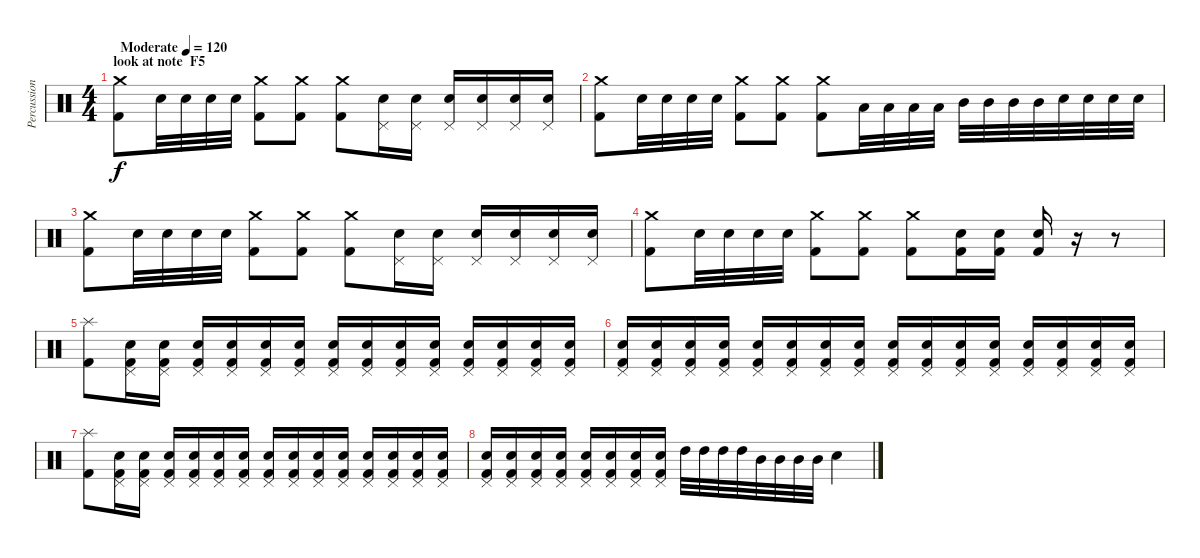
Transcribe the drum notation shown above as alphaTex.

\track ("Percussion" "Percussion") {instrument percussion}
\staff {score}
\articulation defaults
\ts (4 4)
\section ("" "look at note  F5")
\tempo (120 "Moderate")
\clef neutral
\ks c
("Crash medium (hit)" "Kick (hit) 2").8{dy f} "Snare (hit) 2".32 "Snare (hit) 2".32 "Snare (hit) 2".32 "Snare (hit) 2".32 ("Crash medium (hit)" "Kick (hit) 2").8 ("Crash medium (hit)" "Kick (hit) 2").8 ("Crash medium (hit)" "Kick (hit) 2").8 ("Pedal Hi-Hat (hit)" "Snare (hit) 2").16 ("Pedal Hi-Hat (hit)" "Snare (hit) 2").16 ("Pedal Hi-Hat (hit)" "Snare (hit) 2").16 ("Pedal Hi-Hat (hit)" "Snare (hit) 2").16 ("Pedal Hi-Hat (hit)" "Snare (hit) 2").16 ("Pedal Hi-Hat (hit)" "Snare (hit) 2").16 |
("Crash medium (hit)" "Kick (hit) 2").8 "Snare (hit) 2".32 "Snare (hit) 2".32 "Snare (hit) 2".32 "Snare (hit) 2".32 ("Crash medium (hit)" "Kick (hit) 2").8 ("Crash medium (hit)" "Kick (hit) 2").8 ("Crash medium (hit)" "Kick (hit) 2").8 "Low Tom (hit)".32 "Low Tom (hit)".32 "Low Tom (hit)".32 "Low Tom (hit)".32 "Mid Tom (hit)".32 "Mid Tom (hit)".32 "Mid Tom (hit)".32 "Mid Tom (hit)".32 "Snare (hit) 2".32 "Snare (hit) 2".32 "Snare (hit) 2".32 "Snare (hit) 2".32 |
("Crash medium (hit)" "Kick (hit) 2").8 "Snare (hit) 2".32 "Snare (hit) 2".32 "Snare (hit) 2".32 "Snare (hit) 2".32 ("Crash medium (hit)" "Kick (hit) 2").8 ("Crash medium (hit)" "Kick (hit) 2").8 ("Crash medium (hit)" "Kick (hit) 2").8 ("Pedal Hi-Hat (hit)" "Snare (hit) 2").16 ("Pedal Hi-Hat (hit)" "Snare (hit) 2").16 ("Pedal Hi-Hat (hit)" "Snare (hit) 2").16 ("Pedal Hi-Hat (hit)" "Snare (hit) 2").16 ("Pedal Hi-Hat (hit)" "Snare (hit) 2").16 ("Pedal Hi-Hat (hit)" "Snare (hit) 2").16 |
("Crash medium (hit)" "Kick (hit) 2").8 "Snare (hit) 2".32 "Snare (hit) 2".32 "Snare (hit) 2".32 "Snare (hit) 2".32 ("Crash medium (hit)" "Kick (hit) 2").8 ("Crash medium (hit)" "Kick (hit) 2").8 ("Crash medium (hit)" "Kick (hit) 2").8 ("Snare (hit) 2" "Kick (hit) 2").16 ("Snare (hit) 2" "Kick (hit) 2").16 ("Snare (hit) 2" "Kick (hit) 2").16 r.16 r.8 |
("Splash (hit)" "Kick (hit) 2").8 ("Pedal Hi-Hat (hit)" "Snare (hit) 2" "Kick (hit) 2").16 ("Pedal Hi-Hat (hit)" "Snare (hit) 2" "Kick (hit) 2").16 ("Pedal Hi-Hat (hit)" "Snare (hit) 2" "Kick (hit) 2").16 ("Pedal Hi-Hat (hit)" "Snare (hit) 2" "Kick (hit) 2").16 ("Pedal Hi-Hat (hit)" "Snare (hit) 2" "Kick (hit) 2").16 ("Pedal Hi-Hat (hit)" "Snare (hit) 2" "Kick (hit) 2").16 ("Pedal Hi-Hat (hit)" "Snare (hit) 2" "Kick (hit) 2").16 ("Pedal Hi-Hat (hit)" "Snare (hit) 2" "Kick (hit) 2").16 ("Pedal Hi-Hat (hit)" "Snare (hit) 2" "Kick (hit) 2").16 ("Pedal Hi-Hat (hit)" "Snare (hit) 2" "Kick (hit) 2").16 ("Pedal Hi-Hat (hit)" "Snare (hit) 2" "Kick (hit) 2").16 ("Pedal Hi-Hat (hit)" "Snare (hit) 2" "Kick (hit) 2").16 ("Pedal Hi-Hat (hit)" "Snare (hit) 2" "Kick (hit) 2").16 ("Pedal Hi-Hat (hit)" "Snare (hit) 2" "Kick (hit) 2").16 |
("Pedal Hi-Hat (hit)" "Snare (hit) 2" "Kick (hit) 2").16 ("Pedal Hi-Hat (hit)" "Snare (hit) 2" "Kick (hit) 2").16 ("Pedal Hi-Hat (hit)" "Snare (hit) 2" "Kick (hit) 2").16 ("Pedal Hi-Hat (hit)" "Snare (hit) 2" "Kick (hit) 2").16 ("Pedal Hi-Hat (hit)" "Snare (hit) 2" "Kick (hit) 2").16 ("Pedal Hi-Hat (hit)" "Snare (hit) 2" "Kick (hit) 2").16 ("Pedal Hi-Hat (hit)" "Snare (hit) 2" "Kick (hit) 2").16 ("Pedal Hi-Hat (hit)" "Snare (hit) 2" "Kick (hit) 2").16 ("Pedal Hi-Hat (hit)" "Snare (hit) 2" "Kick (hit) 2").16 ("Pedal Hi-Hat (hit)" "Snare (hit) 2" "Kick (hit) 2").16 ("Pedal Hi-Hat (hit)" "Snare (hit) 2" "Kick (hit) 2").16 ("Pedal Hi-Hat (hit)" "Snare (hit) 2" "Kick (hit) 2").16 ("Pedal Hi-Hat (hit)" "Snare (hit) 2" "Kick (hit) 2").16 ("Pedal Hi-Hat (hit)" "Snare (hit) 2" "Kick (hit) 2").16 ("Pedal Hi-Hat (hit)" "Snare (hit) 2" "Kick (hit) 2").16 ("Pedal Hi-Hat (hit)" "Snare (hit) 2" "Kick (hit) 2").16 |
("Splash (hit)" "Kick (hit) 2").8 ("Pedal Hi-Hat (hit)" "Snare (hit) 2" "Kick (hit) 2").16 ("Pedal Hi-Hat (hit)" "Snare (hit) 2" "Kick (hit) 2").16 ("Pedal Hi-Hat (hit)" "Snare (hit) 2" "Kick (hit) 2").16 ("Pedal Hi-Hat (hit)" "Snare (hit) 2" "Kick (hit) 2").16 ("Pedal Hi-Hat (hit)" "Snare (hit) 2" "Kick (hit) 2").16 ("Pedal Hi-Hat (hit)" "Snare (hit) 2" "Kick (hit) 2").16 ("Pedal Hi-Hat (hit)" "Snare (hit) 2" "Kick (hit) 2").16 ("Pedal Hi-Hat (hit)" "Snare (hit) 2" "Kick (hit) 2").16 ("Pedal Hi-Hat (hit)" "Snare (hit) 2" "Kick (hit) 2").16 ("Pedal Hi-Hat (hit)" "Snare (hit) 2" "Kick (hit) 2").16 ("Pedal Hi-Hat (hit)" "Snare (hit) 2" "Kick (hit) 2").16 ("Pedal Hi-Hat (hit)" "Snare (hit) 2" "Kick (hit) 2").16 ("Pedal Hi-Hat (hit)" "Snare (hit) 2" "Kick (hit) 2").16 ("Pedal Hi-Hat (hit)" "Snare (hit) 2" "Kick (hit) 2").16 |
("Pedal Hi-Hat (hit)" "Snare (hit) 2" "Kick (hit) 2").16 ("Pedal Hi-Hat (hit)" "Snare (hit) 2" "Kick (hit) 2").16 ("Pedal Hi-Hat (hit)" "Snare (hit) 2" "Kick (hit) 2").16 ("Pedal Hi-Hat (hit)" "Snare (hit) 2" "Kick (hit) 2").16 ("Pedal Hi-Hat (hit)" "Snare (hit) 2" "Kick (hit) 2").16 ("Pedal Hi-Hat (hit)" "Snare (hit) 2" "Kick (hit) 2").16 ("Pedal Hi-Hat (hit)" "Snare (hit) 2" "Kick (hit) 2").16 ("Pedal Hi-Hat (hit)" "Snare (hit) 2" "Kick (hit) 2").16 "High Tom (hit)".32 "High Tom (hit)".32 "High Tom (hit)".32 "High Tom (hit)".32 "Mid Tom (hit)".32 "Mid Tom (hit)".32 "Mid Tom (hit)".32 "Mid Tom (hit)".32 "Snare (hit) 2".4
